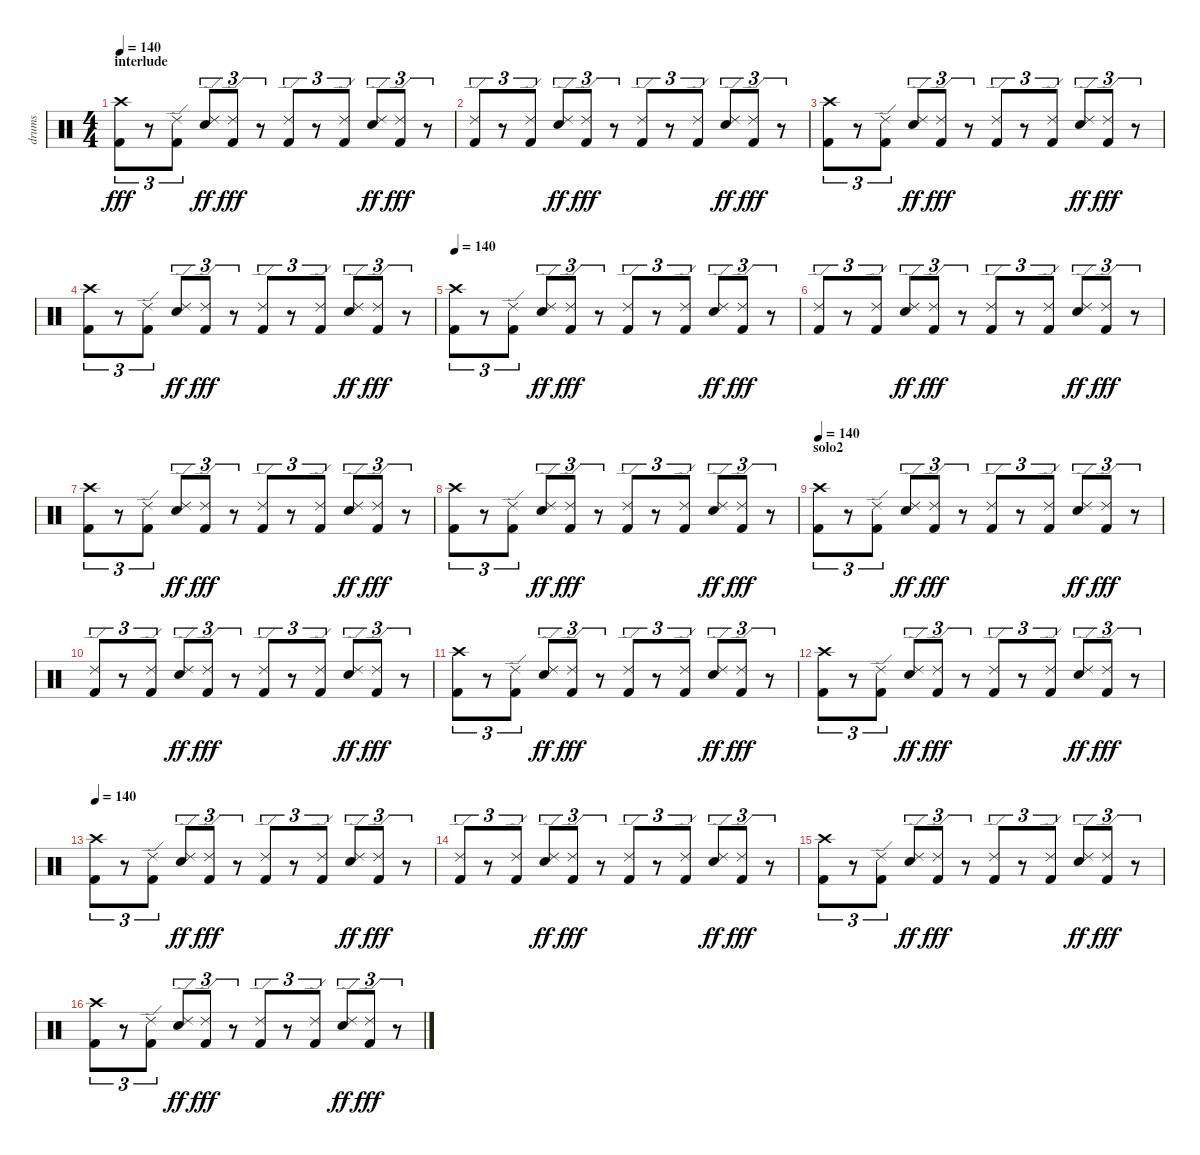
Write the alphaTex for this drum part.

\track ("drums" "drums") {instrument percussion}
\staff {score}
\articulation defaults
\ts (4 4)
\section ("" "interlude")
\tempo 140
\clef neutral
\ks c
("Crash high (hit)" "Kick (hit) 2").8{tu (3 2) dy fff} r.8{tu (3 2)} ("Ride (edge) 2" "Kick (hit) 2").8{tu (3 2)} ("Ride (edge) 2" "Snare (hit) 2").8{tu (3 2) dy ff} ("Ride (edge) 2" "Kick (hit) 2").8{tu (3 2) dy fff} r.8{tu (3 2)} ("Ride (edge) 2" "Kick (hit) 2").8{tu (3 2)} r.8{tu (3 2)} ("Ride (edge) 2" "Kick (hit) 2").8{tu (3 2)} ("Ride (edge) 2" "Snare (hit) 2").8{tu (3 2) dy ff} ("Ride (edge) 2" "Kick (hit) 2").8{tu (3 2) dy fff} r.8{tu (3 2)} |
("Ride (edge) 2" "Kick (hit) 2").8{tu (3 2)} r.8{tu (3 2)} ("Ride (edge) 2" "Kick (hit) 2").8{tu (3 2)} ("Ride (edge) 2" "Snare (hit) 2").8{tu (3 2) dy ff} ("Ride (edge) 2" "Kick (hit) 2").8{tu (3 2) dy fff} r.8{tu (3 2)} ("Ride (edge) 2" "Kick (hit) 2").8{tu (3 2)} r.8{tu (3 2)} ("Ride (edge) 2" "Kick (hit) 2").8{tu (3 2)} ("Ride (edge) 2" "Snare (hit) 2").8{tu (3 2) dy ff} ("Ride (edge) 2" "Kick (hit) 2").8{tu (3 2) dy fff} r.8{tu (3 2)} |
("Crash high (hit)" "Kick (hit) 2").8{tu (3 2)} r.8{tu (3 2)} ("Ride (edge) 2" "Kick (hit) 2").8{tu (3 2)} ("Ride (edge) 2" "Snare (hit) 2").8{tu (3 2) dy ff} ("Ride (edge) 2" "Kick (hit) 2").8{tu (3 2) dy fff} r.8{tu (3 2)} ("Ride (edge) 2" "Kick (hit) 2").8{tu (3 2)} r.8{tu (3 2)} ("Ride (edge) 2" "Kick (hit) 2").8{tu (3 2)} ("Ride (edge) 2" "Snare (hit) 2").8{tu (3 2) dy ff} ("Ride (edge) 2" "Kick (hit) 2").8{tu (3 2) dy fff} r.8{tu (3 2)} |
("Crash high (hit)" "Kick (hit) 2").8{tu (3 2)} r.8{tu (3 2)} ("Ride (edge) 2" "Kick (hit) 2").8{tu (3 2)} ("Ride (edge) 2" "Snare (hit) 2").8{tu (3 2) dy ff} ("Ride (edge) 2" "Kick (hit) 2").8{tu (3 2) dy fff} r.8{tu (3 2)} ("Ride (edge) 2" "Kick (hit) 2").8{tu (3 2)} r.8{tu (3 2)} ("Ride (edge) 2" "Kick (hit) 2").8{tu (3 2)} ("Ride (edge) 2" "Snare (hit) 2").8{tu (3 2) dy ff} ("Ride (edge) 2" "Kick (hit) 2").8{tu (3 2) dy fff} r.8{tu (3 2)} |
\tempo 140
("Crash high (hit)" "Kick (hit) 2").8{tu (3 2)} r.8{tu (3 2)} ("Ride (edge) 2" "Kick (hit) 2").8{tu (3 2)} ("Ride (edge) 2" "Snare (hit) 2").8{tu (3 2) dy ff} ("Ride (edge) 2" "Kick (hit) 2").8{tu (3 2) dy fff} r.8{tu (3 2)} ("Ride (edge) 2" "Kick (hit) 2").8{tu (3 2)} r.8{tu (3 2)} ("Ride (edge) 2" "Kick (hit) 2").8{tu (3 2)} ("Ride (edge) 2" "Snare (hit) 2").8{tu (3 2) dy ff} ("Ride (edge) 2" "Kick (hit) 2").8{tu (3 2) dy fff} r.8{tu (3 2)} |
("Ride (edge) 2" "Kick (hit) 2").8{tu (3 2)} r.8{tu (3 2)} ("Ride (edge) 2" "Kick (hit) 2").8{tu (3 2)} ("Ride (edge) 2" "Snare (hit) 2").8{tu (3 2) dy ff} ("Ride (edge) 2" "Kick (hit) 2").8{tu (3 2) dy fff} r.8{tu (3 2)} ("Ride (edge) 2" "Kick (hit) 2").8{tu (3 2)} r.8{tu (3 2)} ("Ride (edge) 2" "Kick (hit) 2").8{tu (3 2)} ("Ride (edge) 2" "Snare (hit) 2").8{tu (3 2) dy ff} ("Ride (edge) 2" "Kick (hit) 2").8{tu (3 2) dy fff} r.8{tu (3 2)} |
("Crash high (hit)" "Kick (hit) 2").8{tu (3 2)} r.8{tu (3 2)} ("Ride (edge) 2" "Kick (hit) 2").8{tu (3 2)} ("Ride (edge) 2" "Snare (hit) 2").8{tu (3 2) dy ff} ("Ride (edge) 2" "Kick (hit) 2").8{tu (3 2) dy fff} r.8{tu (3 2)} ("Ride (edge) 2" "Kick (hit) 2").8{tu (3 2)} r.8{tu (3 2)} ("Ride (edge) 2" "Kick (hit) 2").8{tu (3 2)} ("Ride (edge) 2" "Snare (hit) 2").8{tu (3 2) dy ff} ("Ride (edge) 2" "Kick (hit) 2").8{tu (3 2) dy fff} r.8{tu (3 2)} |
("Crash high (hit)" "Kick (hit) 2").8{tu (3 2)} r.8{tu (3 2)} ("Ride (edge) 2" "Kick (hit) 2").8{tu (3 2)} ("Ride (edge) 2" "Snare (hit) 2").8{tu (3 2) dy ff} ("Ride (edge) 2" "Kick (hit) 2").8{tu (3 2) dy fff} r.8{tu (3 2)} ("Ride (edge) 2" "Kick (hit) 2").8{tu (3 2)} r.8{tu (3 2)} ("Ride (edge) 2" "Kick (hit) 2").8{tu (3 2)} ("Ride (edge) 2" "Snare (hit) 2").8{tu (3 2) dy ff} ("Ride (edge) 2" "Kick (hit) 2").8{tu (3 2) dy fff} r.8{tu (3 2)} |
\section ("" "solo2")
\tempo 140
("Crash high (hit)" "Kick (hit) 2").8{tu (3 2)} r.8{tu (3 2)} ("Ride (edge) 2" "Kick (hit) 2").8{tu (3 2)} ("Ride (edge) 2" "Snare (hit) 2").8{tu (3 2) dy ff} ("Ride (edge) 2" "Kick (hit) 2").8{tu (3 2) dy fff} r.8{tu (3 2)} ("Ride (edge) 2" "Kick (hit) 2").8{tu (3 2)} r.8{tu (3 2)} ("Ride (edge) 2" "Kick (hit) 2").8{tu (3 2)} ("Ride (edge) 2" "Snare (hit) 2").8{tu (3 2) dy ff} ("Ride (edge) 2" "Kick (hit) 2").8{tu (3 2) dy fff} r.8{tu (3 2)} |
("Ride (edge) 2" "Kick (hit) 2").8{tu (3 2)} r.8{tu (3 2)} ("Ride (edge) 2" "Kick (hit) 2").8{tu (3 2)} ("Ride (edge) 2" "Snare (hit) 2").8{tu (3 2) dy ff} ("Ride (edge) 2" "Kick (hit) 2").8{tu (3 2) dy fff} r.8{tu (3 2)} ("Ride (edge) 2" "Kick (hit) 2").8{tu (3 2)} r.8{tu (3 2)} ("Ride (edge) 2" "Kick (hit) 2").8{tu (3 2)} ("Ride (edge) 2" "Snare (hit) 2").8{tu (3 2) dy ff} ("Ride (edge) 2" "Kick (hit) 2").8{tu (3 2) dy fff} r.8{tu (3 2)} |
("Crash high (hit)" "Kick (hit) 2").8{tu (3 2)} r.8{tu (3 2)} ("Ride (edge) 2" "Kick (hit) 2").8{tu (3 2)} ("Ride (edge) 2" "Snare (hit) 2").8{tu (3 2) dy ff} ("Ride (edge) 2" "Kick (hit) 2").8{tu (3 2) dy fff} r.8{tu (3 2)} ("Ride (edge) 2" "Kick (hit) 2").8{tu (3 2)} r.8{tu (3 2)} ("Ride (edge) 2" "Kick (hit) 2").8{tu (3 2)} ("Ride (edge) 2" "Snare (hit) 2").8{tu (3 2) dy ff} ("Ride (edge) 2" "Kick (hit) 2").8{tu (3 2) dy fff} r.8{tu (3 2)} |
("Crash high (hit)" "Kick (hit) 2").8{tu (3 2)} r.8{tu (3 2)} ("Ride (edge) 2" "Kick (hit) 2").8{tu (3 2)} ("Ride (edge) 2" "Snare (hit) 2").8{tu (3 2) dy ff} ("Ride (edge) 2" "Kick (hit) 2").8{tu (3 2) dy fff} r.8{tu (3 2)} ("Ride (edge) 2" "Kick (hit) 2").8{tu (3 2)} r.8{tu (3 2)} ("Ride (edge) 2" "Kick (hit) 2").8{tu (3 2)} ("Ride (edge) 2" "Snare (hit) 2").8{tu (3 2) dy ff} ("Ride (edge) 2" "Kick (hit) 2").8{tu (3 2) dy fff} r.8{tu (3 2)} |
\tempo 140
("Crash high (hit)" "Kick (hit) 2").8{tu (3 2)} r.8{tu (3 2)} ("Ride (edge) 2" "Kick (hit) 2").8{tu (3 2)} ("Ride (edge) 2" "Snare (hit) 2").8{tu (3 2) dy ff} ("Ride (edge) 2" "Kick (hit) 2").8{tu (3 2) dy fff} r.8{tu (3 2)} ("Ride (edge) 2" "Kick (hit) 2").8{tu (3 2)} r.8{tu (3 2)} ("Ride (edge) 2" "Kick (hit) 2").8{tu (3 2)} ("Ride (edge) 2" "Snare (hit) 2").8{tu (3 2) dy ff} ("Ride (edge) 2" "Kick (hit) 2").8{tu (3 2) dy fff} r.8{tu (3 2)} |
("Ride (edge) 2" "Kick (hit) 2").8{tu (3 2)} r.8{tu (3 2)} ("Ride (edge) 2" "Kick (hit) 2").8{tu (3 2)} ("Ride (edge) 2" "Snare (hit) 2").8{tu (3 2) dy ff} ("Ride (edge) 2" "Kick (hit) 2").8{tu (3 2) dy fff} r.8{tu (3 2)} ("Ride (edge) 2" "Kick (hit) 2").8{tu (3 2)} r.8{tu (3 2)} ("Ride (edge) 2" "Kick (hit) 2").8{tu (3 2)} ("Ride (edge) 2" "Snare (hit) 2").8{tu (3 2) dy ff} ("Ride (edge) 2" "Kick (hit) 2").8{tu (3 2) dy fff} r.8{tu (3 2)} |
("Crash high (hit)" "Kick (hit) 2").8{tu (3 2)} r.8{tu (3 2)} ("Ride (edge) 2" "Kick (hit) 2").8{tu (3 2)} ("Ride (edge) 2" "Snare (hit) 2").8{tu (3 2) dy ff} ("Ride (edge) 2" "Kick (hit) 2").8{tu (3 2) dy fff} r.8{tu (3 2)} ("Ride (edge) 2" "Kick (hit) 2").8{tu (3 2)} r.8{tu (3 2)} ("Ride (edge) 2" "Kick (hit) 2").8{tu (3 2)} ("Ride (edge) 2" "Snare (hit) 2").8{tu (3 2) dy ff} ("Ride (edge) 2" "Kick (hit) 2").8{tu (3 2) dy fff} r.8{tu (3 2)} |
("Crash high (hit)" "Kick (hit) 2").8{tu (3 2)} r.8{tu (3 2)} ("Ride (edge) 2" "Kick (hit) 2").8{tu (3 2)} ("Ride (edge) 2" "Snare (hit) 2").8{tu (3 2) dy ff} ("Ride (edge) 2" "Kick (hit) 2").8{tu (3 2) dy fff} r.8{tu (3 2)} ("Ride (edge) 2" "Kick (hit) 2").8{tu (3 2)} r.8{tu (3 2)} ("Ride (edge) 2" "Kick (hit) 2").8{tu (3 2)} ("Ride (edge) 2" "Snare (hit) 2").8{tu (3 2) dy ff} ("Ride (edge) 2" "Kick (hit) 2").8{tu (3 2) dy fff} r.8{tu (3 2)}
